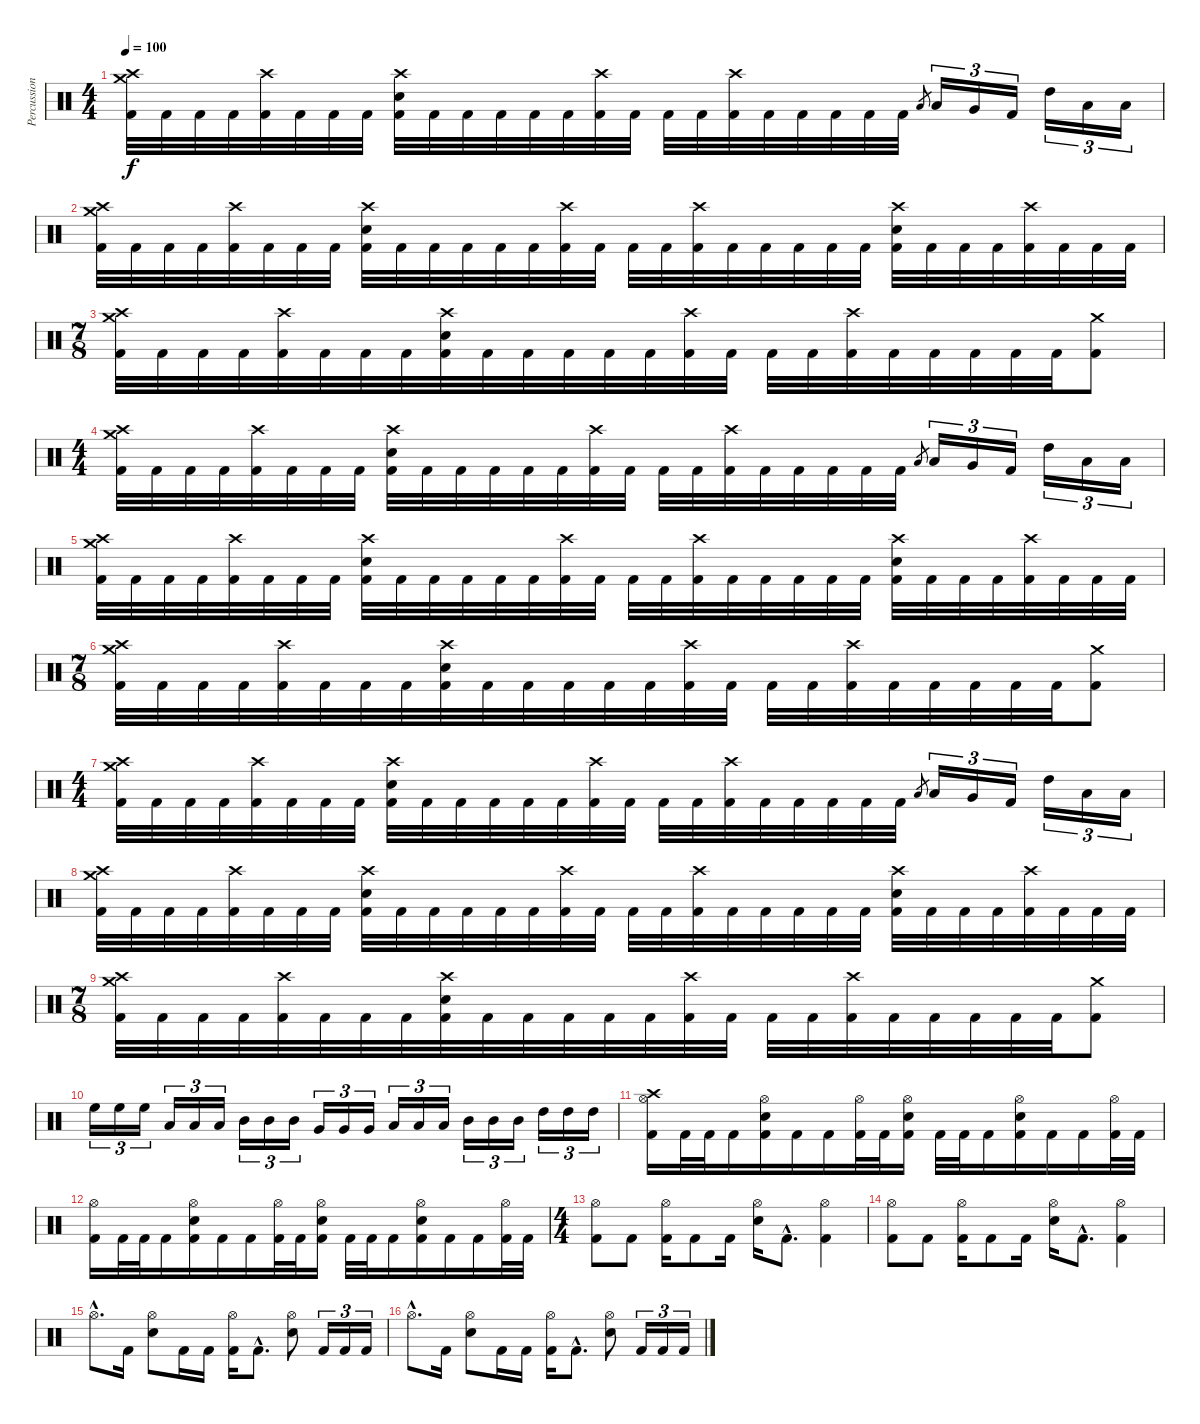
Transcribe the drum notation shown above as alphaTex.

\track ("Percussion" "Percussion") {instrument percussion}
\staff {score}
\articulation defaults
\ts (4 4)
\tempo 100
\clef neutral
\ks c
("Crash medium (hit)" "Crash high (hit)" "Kick (hit) 2").32{dy f} "Kick (hit) 2".32 "Kick (hit) 2".32 "Kick (hit) 2".32 ("Crash high (hit)" "Kick (hit) 2").32 "Kick (hit) 2".32 "Kick (hit) 2".32 "Kick (hit) 2".32 ("Crash high (hit)" "Snare (hit) 2" "Kick (hit) 2").32 "Kick (hit) 2".32 "Kick (hit) 2".32 "Kick (hit) 2".32 "Kick (hit) 2".32 "Kick (hit) 2".32 ("Crash high (hit)" "Kick (hit) 2").32 "Kick (hit) 2".32 "Kick (hit) 2".32 "Kick (hit) 2".32 ("Crash high (hit)" "Kick (hit) 2").32 "Kick (hit) 2".32 "Kick (hit) 2".32 "Kick (hit) 2".32 "Kick (hit) 2".32 "Kick (hit) 2".32 "Low Tom (hit)".8{gr} "Low Tom (hit)".16{tu (3 2)} "Very Low Tom (hit)".16{tu (3 2)} "Kick (hit) 2".16{tu (3 2)} "High Tom (hit)".16{tu (3 2)} "Low Tom (hit)".16{tu (3 2)} "Low Floor Tom (hit)".16{tu (3 2)} |
("Crash medium (hit)" "Crash high (hit)" "Kick (hit) 2").32 "Kick (hit) 2".32 "Kick (hit) 2".32 "Kick (hit) 2".32 ("Crash high (hit)" "Kick (hit) 2").32 "Kick (hit) 2".32 "Kick (hit) 2".32 "Kick (hit) 2".32 ("Crash high (hit)" "Snare (hit) 2" "Kick (hit) 2").32 "Kick (hit) 2".32 "Kick (hit) 2".32 "Kick (hit) 2".32 "Kick (hit) 2".32 "Kick (hit) 2".32 ("Crash high (hit)" "Kick (hit) 2").32 "Kick (hit) 2".32 "Kick (hit) 2".32 "Kick (hit) 2".32 ("Crash high (hit)" "Kick (hit) 2").32 "Kick (hit) 2".32 "Kick (hit) 2".32 "Kick (hit) 2".32 "Kick (hit) 2".32 "Kick (hit) 2".32 ("Crash high (hit)" "Snare (hit) 2" "Kick (hit) 2").32 "Kick (hit) 2".32 "Kick (hit) 2".32 "Kick (hit) 2".32 ("Crash high (hit)" "Kick (hit) 2").32 "Kick (hit) 2".32 "Kick (hit) 2".32 "Kick (hit) 2".32 |
\ts (7 8)
("Crash medium (hit)" "Crash high (hit)" "Kick (hit) 2").32 "Kick (hit) 2".32 "Kick (hit) 2".32 "Kick (hit) 2".32 ("Crash high (hit)" "Kick (hit) 2").32 "Kick (hit) 2".32 "Kick (hit) 2".32 "Kick (hit) 2".32 ("Crash high (hit)" "Snare (hit) 2" "Kick (hit) 2").32 "Kick (hit) 2".32 "Kick (hit) 2".32 "Kick (hit) 2".32 "Kick (hit) 2".32 "Kick (hit) 2".32 ("Crash high (hit)" "Kick (hit) 2").32 "Kick (hit) 2".32 "Kick (hit) 2".32 "Kick (hit) 2".32 ("Crash high (hit)" "Kick (hit) 2").32 "Kick (hit) 2".32 "Kick (hit) 2".32 "Kick (hit) 2".32 "Kick (hit) 2".32 "Kick (hit) 2".32 ("Crash medium (hit)" "Kick (hit) 2").8 |
\ts (4 4)
("Crash medium (hit)" "Crash high (hit)" "Kick (hit) 2").32 "Kick (hit) 2".32 "Kick (hit) 2".32 "Kick (hit) 2".32 ("Crash high (hit)" "Kick (hit) 2").32 "Kick (hit) 2".32 "Kick (hit) 2".32 "Kick (hit) 2".32 ("Crash high (hit)" "Snare (hit) 2" "Kick (hit) 2").32 "Kick (hit) 2".32 "Kick (hit) 2".32 "Kick (hit) 2".32 "Kick (hit) 2".32 "Kick (hit) 2".32 ("Crash high (hit)" "Kick (hit) 2").32 "Kick (hit) 2".32 "Kick (hit) 2".32 "Kick (hit) 2".32 ("Crash high (hit)" "Kick (hit) 2").32 "Kick (hit) 2".32 "Kick (hit) 2".32 "Kick (hit) 2".32 "Kick (hit) 2".32 "Kick (hit) 2".32 "Low Tom (hit)".8{gr} "Low Tom (hit)".16{tu (3 2)} "Very Low Tom (hit)".16{tu (3 2)} "Kick (hit) 2".16{tu (3 2)} "High Tom (hit)".16{tu (3 2)} "Low Tom (hit)".16{tu (3 2)} "Low Floor Tom (hit)".16{tu (3 2)} |
("Crash medium (hit)" "Crash high (hit)" "Kick (hit) 2").32 "Kick (hit) 2".32 "Kick (hit) 2".32 "Kick (hit) 2".32 ("Crash high (hit)" "Kick (hit) 2").32 "Kick (hit) 2".32 "Kick (hit) 2".32 "Kick (hit) 2".32 ("Crash high (hit)" "Snare (hit) 2" "Kick (hit) 2").32 "Kick (hit) 2".32 "Kick (hit) 2".32 "Kick (hit) 2".32 "Kick (hit) 2".32 "Kick (hit) 2".32 ("Crash high (hit)" "Kick (hit) 2").32 "Kick (hit) 2".32 "Kick (hit) 2".32 "Kick (hit) 2".32 ("Crash high (hit)" "Kick (hit) 2").32 "Kick (hit) 2".32 "Kick (hit) 2".32 "Kick (hit) 2".32 "Kick (hit) 2".32 "Kick (hit) 2".32 ("Crash high (hit)" "Snare (hit) 2" "Kick (hit) 2").32 "Kick (hit) 2".32 "Kick (hit) 2".32 "Kick (hit) 2".32 ("Crash high (hit)" "Kick (hit) 2").32 "Kick (hit) 2".32 "Kick (hit) 2".32 "Kick (hit) 2".32 |
\ts (7 8)
("Crash medium (hit)" "Crash high (hit)" "Kick (hit) 2").32 "Kick (hit) 2".32 "Kick (hit) 2".32 "Kick (hit) 2".32 ("Crash high (hit)" "Kick (hit) 2").32 "Kick (hit) 2".32 "Kick (hit) 2".32 "Kick (hit) 2".32 ("Crash high (hit)" "Snare (hit) 2" "Kick (hit) 2").32 "Kick (hit) 2".32 "Kick (hit) 2".32 "Kick (hit) 2".32 "Kick (hit) 2".32 "Kick (hit) 2".32 ("Crash high (hit)" "Kick (hit) 2").32 "Kick (hit) 2".32 "Kick (hit) 2".32 "Kick (hit) 2".32 ("Crash high (hit)" "Kick (hit) 2").32 "Kick (hit) 2".32 "Kick (hit) 2".32 "Kick (hit) 2".32 "Kick (hit) 2".32 "Kick (hit) 2".32 ("Crash medium (hit)" "Kick (hit) 2").8 |
\ts (4 4)
("Crash medium (hit)" "Crash high (hit)" "Kick (hit) 2").32 "Kick (hit) 2".32 "Kick (hit) 2".32 "Kick (hit) 2".32 ("Crash high (hit)" "Kick (hit) 2").32 "Kick (hit) 2".32 "Kick (hit) 2".32 "Kick (hit) 2".32 ("Crash high (hit)" "Snare (hit) 2" "Kick (hit) 2").32 "Kick (hit) 2".32 "Kick (hit) 2".32 "Kick (hit) 2".32 "Kick (hit) 2".32 "Kick (hit) 2".32 ("Crash high (hit)" "Kick (hit) 2").32 "Kick (hit) 2".32 "Kick (hit) 2".32 "Kick (hit) 2".32 ("Crash high (hit)" "Kick (hit) 2").32 "Kick (hit) 2".32 "Kick (hit) 2".32 "Kick (hit) 2".32 "Kick (hit) 2".32 "Kick (hit) 2".32 "Low Tom (hit)".8{gr} "Low Tom (hit)".16{tu (3 2)} "Very Low Tom (hit)".16{tu (3 2)} "Kick (hit) 2".16{tu (3 2)} "High Tom (hit)".16{tu (3 2)} "Low Tom (hit)".16{tu (3 2)} "Low Floor Tom (hit)".16{tu (3 2)} |
("Crash medium (hit)" "Crash high (hit)" "Kick (hit) 2").32 "Kick (hit) 2".32 "Kick (hit) 2".32 "Kick (hit) 2".32 ("Crash high (hit)" "Kick (hit) 2").32 "Kick (hit) 2".32 "Kick (hit) 2".32 "Kick (hit) 2".32 ("Crash high (hit)" "Snare (hit) 2" "Kick (hit) 2").32 "Kick (hit) 2".32 "Kick (hit) 2".32 "Kick (hit) 2".32 "Kick (hit) 2".32 "Kick (hit) 2".32 ("Crash high (hit)" "Kick (hit) 2").32 "Kick (hit) 2".32 "Kick (hit) 2".32 "Kick (hit) 2".32 ("Crash high (hit)" "Kick (hit) 2").32 "Kick (hit) 2".32 "Kick (hit) 2".32 "Kick (hit) 2".32 "Kick (hit) 2".32 "Kick (hit) 2".32 ("Crash high (hit)" "Snare (hit) 2" "Kick (hit) 2").32 "Kick (hit) 2".32 "Kick (hit) 2".32 "Kick (hit) 2".32 ("Crash high (hit)" "Kick (hit) 2").32 "Kick (hit) 2".32 "Kick (hit) 2".32 "Kick (hit) 2".32 |
\ts (7 8)
("Crash medium (hit)" "Crash high (hit)" "Kick (hit) 2").32 "Kick (hit) 2".32 "Kick (hit) 2".32 "Kick (hit) 2".32 ("Crash high (hit)" "Kick (hit) 2").32 "Kick (hit) 2".32 "Kick (hit) 2".32 "Kick (hit) 2".32 ("Crash high (hit)" "Snare (hit) 2" "Kick (hit) 2").32 "Kick (hit) 2".32 "Kick (hit) 2".32 "Kick (hit) 2".32 "Kick (hit) 2".32 "Kick (hit) 2".32 ("Crash high (hit)" "Kick (hit) 2").32 "Kick (hit) 2".32 "Kick (hit) 2".32 "Kick (hit) 2".32 ("Crash high (hit)" "Kick (hit) 2").32 "Kick (hit) 2".32 "Kick (hit) 2".32 "Kick (hit) 2".32 "Kick (hit) 2".32 "Kick (hit) 2".32 ("Crash medium (hit)" "Kick (hit) 2").8 |
"High Floor Tom (hit)".16{tu (3 2)} "High Floor Tom (hit)".16{tu (3 2)} "High Floor Tom (hit)".16{tu (3 2)} "Low Tom (hit)".16{tu (3 2)} "Low Tom (hit)".16{tu (3 2)} "Low Tom (hit)".16{tu (3 2)} "Mid Tom (hit)".16{tu (3 2)} "Mid Tom (hit)".16{tu (3 2)} "Mid Tom (hit)".16{tu (3 2)} "Very Low Tom (hit)".16{tu (3 2)} "Very Low Tom (hit)".16{tu (3 2)} "Very Low Tom (hit)".16{tu (3 2)} "Low Tom (hit)".16{tu (3 2)} "Low Tom (hit)".16{tu (3 2)} "Low Tom (hit)".16{tu (3 2)} "Mid Tom (hit)".16{tu (3 2)} "Mid Tom (hit)".16{tu (3 2)} "Mid Tom (hit)".16{tu (3 2)} "High Tom (hit)".16{tu (3 2)} "High Tom (hit)".16{tu (3 2)} "High Tom (hit)".16{tu (3 2)} |
("Crash high (hit)" "Hi-Hat (open)" "Kick (hit) 2").16 "Kick (hit) 2".32 "Kick (hit) 2".32 "Kick (hit) 2".16 ("Hi-Hat (open)" "Snare (hit) 2" "Kick (hit) 2").16 "Kick (hit) 2".16 "Kick (hit) 2".16 ("Hi-Hat (open)" "Kick (hit) 2").32 "Kick (hit) 2".32 ("Hi-Hat (open)" "Snare (hit) 2" "Kick (hit) 2").16 "Kick (hit) 2".32 "Kick (hit) 2".32 "Kick (hit) 2".16 ("Hi-Hat (open)" "Snare (hit) 2" "Kick (hit) 2").16 "Kick (hit) 2".16 "Kick (hit) 2".16 ("Hi-Hat (open)" "Kick (hit) 2").32 "Kick (hit) 2".32 |
("Hi-Hat (open)" "Kick (hit) 2").16 "Kick (hit) 2".32 "Kick (hit) 2".32 "Kick (hit) 2".16 ("Hi-Hat (open)" "Snare (hit) 2" "Kick (hit) 2").16 "Kick (hit) 2".16 "Kick (hit) 2".16 ("Hi-Hat (open)" "Kick (hit) 2").32 "Kick (hit) 2".32 ("Hi-Hat (open)" "Snare (hit) 2" "Kick (hit) 2").16 "Kick (hit) 2".32 "Kick (hit) 2".32 "Kick (hit) 2".16 ("Hi-Hat (open)" "Snare (hit) 2" "Kick (hit) 2").16 "Kick (hit) 2".16 "Kick (hit) 2".16 ("Hi-Hat (open)" "Kick (hit) 2").32 "Kick (hit) 2".32 |
\ts (4 4)
("Hi-Hat (open)" "Kick (hit) 2").8 "Kick (hit) 2".8 ("Hi-Hat (open)" "Kick (hit) 2").16 "Kick (hit) 2".8 "Kick (hit) 2".16 ("Hi-Hat (open)" "Snare (hit) 2").16 "Kick (hit) 2"{hac}.8{d} ("Hi-Hat (open)" "Kick (hit) 2").4 |
("Hi-Hat (open)" "Kick (hit) 2").8 "Kick (hit) 2".8 ("Hi-Hat (open)" "Kick (hit) 2").16 "Kick (hit) 2".8 "Kick (hit) 2".16 ("Hi-Hat (open)" "Snare (hit) 2").16 "Kick (hit) 2"{hac}.8{d} ("Hi-Hat (open)" "Kick (hit) 2").4 |
"Hi-Hat (open)"{hac}.8{d} "Kick (hit) 2".16 ("Hi-Hat (open)" "Snare (hit) 2").8 "Kick (hit) 2".16 "Kick (hit) 2".16 ("Hi-Hat (open)" "Kick (hit) 2").16 "Kick (hit) 2"{hac}.8{d} ("Hi-Hat (open)" "Snare (hit) 2").8 "Kick (hit) 2".16{tu (3 2)} "Kick (hit) 2".16{tu (3 2)} "Kick (hit) 2".16{tu (3 2)} |
"Hi-Hat (open)"{hac}.8{d} "Kick (hit) 2".16 ("Hi-Hat (open)" "Snare (hit) 2").8 "Kick (hit) 2".16 "Kick (hit) 2".16 ("Hi-Hat (open)" "Kick (hit) 2").16 "Kick (hit) 2"{hac}.8{d} ("Hi-Hat (open)" "Snare (hit) 2").8 "Kick (hit) 2".16{tu (3 2)} "Kick (hit) 2".16{tu (3 2)} "Kick (hit) 2".16{tu (3 2)}
